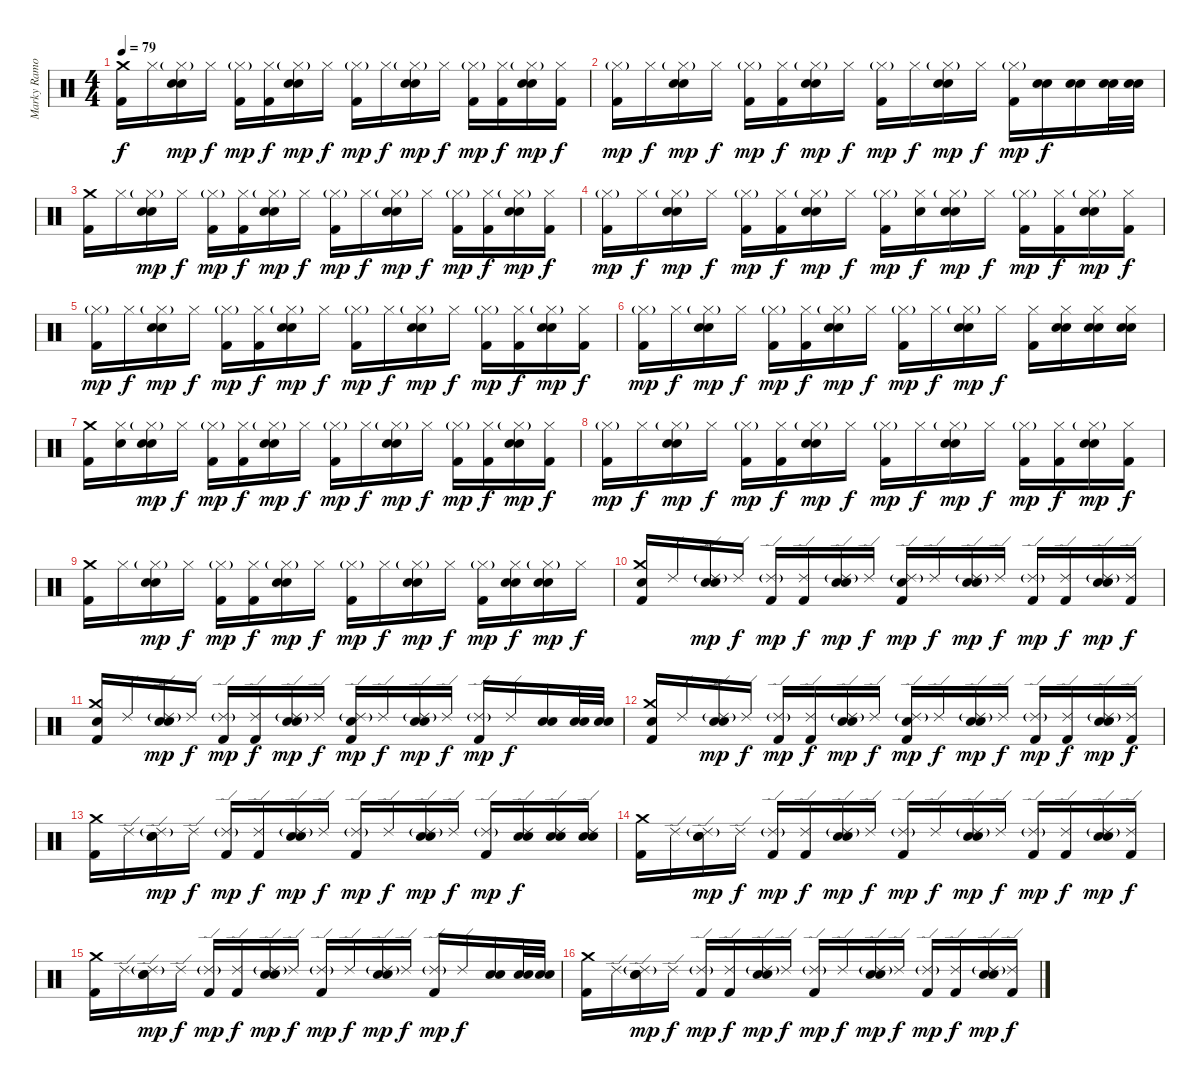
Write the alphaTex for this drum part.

\track ("Marky Ramone" "Marky Ramo") {instrument percussion}
\staff {score}
\articulation defaults
\ts (4 4)
\tempo 79
\clef neutral
\ks c
("Kick (hit) 2" "Crash medium (hit)").16{dy f} "Hi-Hat (closed)".16 ("Hi-Hat (closed)"{g} "Snare (hit) 2" "Electric Snare (hit)").16{dy mp} "Hi-Hat (closed)".16{dy f} ("Hi-Hat (closed)"{g} "Kick (hit) 2").16{dy mp} ("Hi-Hat (closed)" "Kick (hit) 2").16{dy f} ("Hi-Hat (closed)"{g} "Electric Snare (hit)" "Snare (hit) 2").16{dy mp} "Hi-Hat (closed)".16{dy f} ("Hi-Hat (closed)"{g} "Kick (hit) 2").16{dy mp} "Hi-Hat (closed)".16{dy f} ("Hi-Hat (closed)"{g} "Electric Snare (hit)" "Snare (hit) 2").16{dy mp} "Hi-Hat (closed)".16{dy f} ("Hi-Hat (closed)"{g} "Kick (hit) 2").16{dy mp} ("Hi-Hat (closed)" "Kick (hit) 2").16{dy f} ("Hi-Hat (closed)"{g} "Electric Snare (hit)" "Snare (hit) 2").16{dy mp} ("Hi-Hat (closed)" "Kick (hit) 2").16{dy f} |
("Hi-Hat (closed)"{g} "Kick (hit) 2").16{dy mp} "Hi-Hat (closed)".16{dy f} ("Hi-Hat (closed)"{g} "Electric Snare (hit)" "Snare (hit) 2").16{dy mp} "Hi-Hat (closed)".16{dy f} ("Hi-Hat (closed)"{g} "Kick (hit) 2").16{dy mp} ("Hi-Hat (closed)" "Kick (hit) 2").16{dy f} ("Hi-Hat (closed)"{g} "Electric Snare (hit)" "Snare (hit) 2").16{dy mp} "Hi-Hat (closed)".16{dy f} ("Hi-Hat (closed)"{g} "Kick (hit) 2").16{dy mp} "Hi-Hat (closed)".16{dy f} ("Hi-Hat (closed)"{g} "Electric Snare (hit)" "Snare (hit) 2").16{dy mp} "Hi-Hat (closed)".16{dy f} ("Hi-Hat (closed)"{g} "Kick (hit) 2").16{dy mp} ("Electric Snare (hit)" "Snare (hit) 2").16{dy f} ("Electric Snare (hit)" "Snare (hit) 2").16 ("Electric Snare (hit)" "Snare (hit) 2").32 ("Electric Snare (hit)" "Snare (hit) 2").32 |
("Crash medium (hit)" "Kick (hit) 2").16 "Hi-Hat (closed)".16 ("Hi-Hat (closed)"{g} "Electric Snare (hit)" "Snare (hit) 2").16{dy mp} "Hi-Hat (closed)".16{dy f} ("Hi-Hat (closed)"{g} "Kick (hit) 2").16{dy mp} ("Hi-Hat (closed)" "Kick (hit) 2").16{dy f} ("Hi-Hat (closed)"{g} "Electric Snare (hit)" "Snare (hit) 2").16{dy mp} "Hi-Hat (closed)".16{dy f} ("Hi-Hat (closed)"{g} "Kick (hit) 2").16{dy mp} "Hi-Hat (closed)".16{dy f} ("Hi-Hat (closed)"{g} "Electric Snare (hit)" "Snare (hit) 2").16{dy mp} "Hi-Hat (closed)".16{dy f} ("Hi-Hat (closed)"{g} "Kick (hit) 2").16{dy mp} ("Hi-Hat (closed)" "Kick (hit) 2").16{dy f} ("Hi-Hat (closed)"{g} "Electric Snare (hit)" "Snare (hit) 2").16{dy mp} ("Hi-Hat (closed)" "Kick (hit) 2").16{dy f} |
("Hi-Hat (closed)"{g} "Kick (hit) 2").16{dy mp} "Hi-Hat (closed)".16{dy f} ("Hi-Hat (closed)"{g} "Electric Snare (hit)" "Snare (hit) 2").16{dy mp} "Hi-Hat (closed)".16{dy f} ("Hi-Hat (closed)"{g} "Kick (hit) 2").16{dy mp} ("Hi-Hat (closed)" "Kick (hit) 2").16{dy f} ("Hi-Hat (closed)"{g} "Electric Snare (hit)" "Snare (hit) 2").16{dy mp} "Hi-Hat (closed)".16{dy f} ("Hi-Hat (closed)"{g} "Kick (hit) 2").16{dy mp} ("Hi-Hat (closed)" "Snare (hit)").16{dy f} ("Hi-Hat (closed)"{g} "Electric Snare (hit)" "Snare (hit) 2").16{dy mp} "Hi-Hat (closed)".16{dy f} ("Hi-Hat (closed)"{g} "Kick (hit) 2").16{dy mp} ("Hi-Hat (closed)" "Kick (hit) 2").16{dy f} ("Hi-Hat (closed)"{g} "Electric Snare (hit)" "Snare (hit) 2").16{dy mp} ("Hi-Hat (closed)" "Kick (hit) 2").16{dy f} |
("Hi-Hat (closed)"{g} "Kick (hit) 2").16{dy mp} "Hi-Hat (closed)".16{dy f} ("Hi-Hat (closed)"{g} "Electric Snare (hit)" "Snare (hit) 2").16{dy mp} "Hi-Hat (closed)".16{dy f} ("Hi-Hat (closed)"{g} "Kick (hit) 2").16{dy mp} ("Hi-Hat (closed)" "Kick (hit) 2").16{dy f} ("Hi-Hat (closed)"{g} "Electric Snare (hit)" "Snare (hit) 2").16{dy mp} "Hi-Hat (closed)".16{dy f} ("Hi-Hat (closed)"{g} "Kick (hit) 2").16{dy mp} "Hi-Hat (closed)".16{dy f} ("Hi-Hat (closed)"{g} "Electric Snare (hit)" "Snare (hit) 2").16{dy mp} "Hi-Hat (closed)".16{dy f} ("Hi-Hat (closed)"{g} "Kick (hit) 2").16{dy mp} ("Hi-Hat (closed)" "Kick (hit) 2").16{dy f} ("Hi-Hat (closed)"{g} "Electric Snare (hit)" "Snare (hit) 2").16{dy mp} ("Hi-Hat (closed)" "Kick (hit) 2").16{dy f} |
("Hi-Hat (closed)"{g} "Kick (hit) 2").16{dy mp} "Hi-Hat (closed)".16{dy f} ("Hi-Hat (closed)"{g} "Electric Snare (hit)" "Snare (hit) 2").16{dy mp} "Hi-Hat (closed)".16{dy f} ("Hi-Hat (closed)"{g} "Kick (hit) 2").16{dy mp} ("Hi-Hat (closed)" "Kick (hit) 2").16{dy f} ("Hi-Hat (closed)"{g} "Electric Snare (hit)" "Snare (hit) 2").16{dy mp} "Hi-Hat (closed)".16{dy f} ("Hi-Hat (closed)"{g} "Kick (hit) 2").16{dy mp} "Hi-Hat (closed)".16{dy f} ("Hi-Hat (closed)"{g} "Electric Snare (hit)" "Snare (hit) 2").16{dy mp} "Hi-Hat (closed)".16{dy f} ("Hi-Hat (closed)" "Kick (hit) 2").16 ("Hi-Hat (closed)" "Electric Snare (hit)" "Snare (hit) 2").16 ("Hi-Hat (closed)" "Electric Snare (hit)" "Snare (hit) 2").16 ("Hi-Hat (closed)" "Electric Snare (hit)" "Snare (hit) 2").16 |
("Crash medium (hit)" "Kick (hit) 2").16 ("Hi-Hat (closed)" "Snare (hit)").16 ("Hi-Hat (closed)"{g} "Electric Snare (hit)" "Snare (hit) 2").16{dy mp} "Hi-Hat (closed)".16{dy f} ("Hi-Hat (closed)"{g} "Kick (hit) 2").16{dy mp} ("Hi-Hat (closed)" "Kick (hit) 2").16{dy f} ("Hi-Hat (closed)"{g} "Electric Snare (hit)" "Snare (hit) 2").16{dy mp} "Hi-Hat (closed)".16{dy f} ("Hi-Hat (closed)"{g} "Kick (hit) 2").16{dy mp} "Hi-Hat (closed)".16{dy f} ("Hi-Hat (closed)"{g} "Electric Snare (hit)" "Snare (hit) 2").16{dy mp} "Hi-Hat (closed)".16{dy f} ("Hi-Hat (closed)"{g} "Kick (hit) 2").16{dy mp} ("Hi-Hat (closed)" "Kick (hit) 2").16{dy f} ("Hi-Hat (closed)"{g} "Electric Snare (hit)" "Snare (hit) 2").16{dy mp} ("Hi-Hat (closed)" "Kick (hit) 2").16{dy f} |
("Hi-Hat (closed)"{g} "Kick (hit) 2").16{dy mp} "Hi-Hat (closed)".16{dy f} ("Hi-Hat (closed)"{g} "Electric Snare (hit)" "Snare (hit) 2").16{dy mp} "Hi-Hat (closed)".16{dy f} ("Hi-Hat (closed)"{g} "Kick (hit) 2").16{dy mp} ("Hi-Hat (closed)" "Kick (hit) 2").16{dy f} ("Hi-Hat (closed)"{g} "Electric Snare (hit)" "Snare (hit) 2").16{dy mp} "Hi-Hat (closed)".16{dy f} ("Hi-Hat (closed)"{g} "Kick (hit) 2").16{dy mp} "Hi-Hat (closed)".16{dy f} ("Hi-Hat (closed)"{g} "Electric Snare (hit)" "Snare (hit) 2").16{dy mp} "Hi-Hat (closed)".16{dy f} ("Hi-Hat (closed)"{g} "Kick (hit) 2").16{dy mp} ("Hi-Hat (closed)" "Kick (hit) 2").16{dy f} ("Hi-Hat (closed)"{g} "Electric Snare (hit)" "Snare (hit) 2").16{dy mp} ("Hi-Hat (closed)" "Kick (hit) 2").16{dy f} |
("Crash medium (hit)" "Kick (hit) 2").16 "Hi-Hat (closed)".16 ("Hi-Hat (closed)"{g} "Electric Snare (hit)" "Snare (hit) 2").16{dy mp} "Hi-Hat (closed)".16{dy f} ("Hi-Hat (closed)"{g} "Kick (hit) 2").16{dy mp} ("Hi-Hat (closed)" "Kick (hit) 2").16{dy f} ("Hi-Hat (closed)"{g} "Electric Snare (hit)" "Snare (hit) 2").16{dy mp} "Hi-Hat (closed)".16{dy f} ("Hi-Hat (closed)"{g} "Kick (hit) 2").16{dy mp} "Hi-Hat (closed)".16{dy f} ("Hi-Hat (closed)"{g} "Electric Snare (hit)" "Snare (hit) 2").16{dy mp} "Hi-Hat (closed)".16{dy f} ("Hi-Hat (closed)"{g} "Kick (hit) 2").16{dy mp} ("Hi-Hat (closed)" "Electric Snare (hit)" "Snare (hit) 2").16{dy f} ("Hi-Hat (closed)"{g} "Electric Snare (hit)" "Snare (hit) 2").16{dy mp} "Hi-Hat (closed)".16{dy f} |
("Crash medium (hit)" "Kick (hit) 2" "Metronome (bell)").16 "Ride (edge) 2".16 ("Ride (edge) 2"{g} "Electric Snare (hit)" "Snare (hit) 2").16{dy mp} "Ride (edge) 2".16{dy f} ("Ride (edge) 2"{g} "Kick (hit) 2").16{dy mp} ("Ride (edge) 2" "Kick (hit) 2").16{dy f} ("Ride (edge) 2"{g} "Electric Snare (hit)" "Snare (hit) 2").16{dy mp} "Ride (edge) 2".16{dy f} ("Ride (edge) 2"{g} "Kick (hit) 2" "Metronome (bell)").16{dy mp} "Ride (edge) 2".16{dy f} ("Ride (edge) 2"{g} "Electric Snare (hit)" "Snare (hit) 2").16{dy mp} "Ride (edge) 2".16{dy f} ("Ride (edge) 2"{g} "Kick (hit) 2").16{dy mp} ("Ride (edge) 2" "Kick (hit) 2").16{dy f} ("Ride (edge) 2"{g} "Electric Snare (hit)" "Snare (hit) 2").16{dy mp} ("Ride (edge) 2" "Kick (hit) 2").16{dy f} |
("Crash medium (hit)" "Kick (hit) 2" "Metronome (bell)").16 "Ride (edge) 2".16 ("Ride (edge) 2"{g} "Electric Snare (hit)" "Snare (hit) 2").16{dy mp} "Ride (edge) 2".16{dy f} ("Ride (edge) 2"{g} "Kick (hit) 2").16{dy mp} ("Ride (edge) 2" "Kick (hit) 2").16{dy f} ("Ride (edge) 2"{g} "Electric Snare (hit)" "Snare (hit) 2").16{dy mp} "Ride (edge) 2".16{dy f} ("Ride (edge) 2"{g} "Kick (hit) 2" "Metronome (bell)").16{dy mp} "Ride (edge) 2".16{dy f} ("Ride (edge) 2"{g} "Electric Snare (hit)" "Snare (hit) 2").16{dy mp} "Ride (edge) 2".16{dy f} ("Ride (edge) 2"{g} "Kick (hit) 2").16{dy mp} "Ride (edge) 2".16{dy f} ("Electric Snare (hit)" "Snare (hit) 2").16 ("Electric Snare (hit)" "Snare (hit) 2").32 ("Electric Snare (hit)" "Snare (hit) 2").32 |
("Crash medium (hit)" "Kick (hit) 2" "Metronome (bell)").16 "Ride (edge) 2".16 ("Ride (edge) 2"{g} "Electric Snare (hit)" "Snare (hit) 2").16{dy mp} "Ride (edge) 2".16{dy f} ("Ride (edge) 2"{g} "Kick (hit) 2").16{dy mp} ("Ride (edge) 2" "Kick (hit) 2").16{dy f} ("Ride (edge) 2"{g} "Electric Snare (hit)" "Snare (hit) 2").16{dy mp} "Ride (edge) 2".16{dy f} ("Ride (edge) 2"{g} "Kick (hit) 2" "Metronome (bell)").16{dy mp} "Ride (edge) 2".16{dy f} ("Ride (edge) 2"{g} "Electric Snare (hit)" "Snare (hit) 2").16{dy mp} "Ride (edge) 2".16{dy f} ("Ride (edge) 2"{g} "Kick (hit) 2").16{dy mp} ("Ride (edge) 2" "Kick (hit) 2").16{dy f} ("Ride (edge) 2"{g} "Electric Snare (hit)" "Snare (hit) 2").16{dy mp} ("Ride (edge) 2" "Kick (hit) 2").16{dy f} |
("Crash medium (hit)" "Kick (hit) 2").16 "Ride (edge) 2".16 ("Ride (edge) 2"{g} "Electric Snare (hit)" "Snare (hit) 2").16{dy mp} "Ride (edge) 2".16{dy f} ("Ride (edge) 2"{g} "Kick (hit) 2").16{dy mp} ("Ride (edge) 2" "Kick (hit) 2").16{dy f} ("Ride (edge) 2"{g} "Electric Snare (hit)" "Snare (hit) 2").16{dy mp} "Ride (edge) 2".16{dy f} ("Ride (edge) 2"{g} "Kick (hit) 2").16{dy mp} "Ride (edge) 2".16{dy f} ("Ride (edge) 2"{g} "Electric Snare (hit)" "Snare (hit) 2").16{dy mp} "Ride (edge) 2".16{dy f} ("Ride (edge) 2"{g} "Kick (hit) 2").16{dy mp} ("Ride (edge) 2" "Electric Snare (hit)" "Snare (hit) 2").16{dy f} ("Ride (edge) 2" "Electric Snare (hit)" "Snare (hit) 2").16 ("Ride (edge) 2" "Electric Snare (hit)" "Snare (hit) 2").16 |
("Crash medium (hit)" "Kick (hit) 2").16 "Ride (edge) 2".16 ("Ride (edge) 2"{g} "Electric Snare (hit)" "Snare (hit) 2").16{dy mp} "Ride (edge) 2".16{dy f} ("Ride (edge) 2"{g} "Kick (hit) 2").16{dy mp} ("Ride (edge) 2" "Kick (hit) 2").16{dy f} ("Ride (edge) 2"{g} "Electric Snare (hit)" "Snare (hit) 2").16{dy mp} "Ride (edge) 2".16{dy f} ("Ride (edge) 2"{g} "Kick (hit) 2").16{dy mp} "Ride (edge) 2".16{dy f} ("Ride (edge) 2"{g} "Electric Snare (hit)" "Snare (hit) 2").16{dy mp} "Ride (edge) 2".16{dy f} ("Ride (edge) 2"{g} "Kick (hit) 2").16{dy mp} ("Ride (edge) 2" "Kick (hit) 2").16{dy f} ("Ride (edge) 2"{g} "Electric Snare (hit)" "Snare (hit) 2").16{dy mp} ("Ride (edge) 2" "Kick (hit) 2").16{dy f} |
("Crash medium (hit)" "Kick (hit) 2").16 "Ride (edge) 2".16 ("Ride (edge) 2"{g} "Electric Snare (hit)" "Snare (hit) 2").16{dy mp} "Ride (edge) 2".16{dy f} ("Ride (edge) 2"{g} "Kick (hit) 2").16{dy mp} ("Ride (edge) 2" "Kick (hit) 2").16{dy f} ("Ride (edge) 2"{g} "Electric Snare (hit)" "Snare (hit) 2").16{dy mp} "Ride (edge) 2".16{dy f} ("Ride (edge) 2"{g} "Kick (hit) 2").16{dy mp} "Ride (edge) 2".16{dy f} ("Ride (edge) 2"{g} "Electric Snare (hit)" "Snare (hit) 2").16{dy mp} "Ride (edge) 2".16{dy f} ("Ride (edge) 2"{g} "Kick (hit) 2").16{dy mp} "Ride (edge) 2".16{dy f} ("Electric Snare (hit)" "Snare (hit) 2").16 ("Electric Snare (hit)" "Snare (hit) 2").32 ("Electric Snare (hit)" "Snare (hit) 2").32 |
("Crash medium (hit)" "Kick (hit) 2").16 "Ride (edge) 2".16 ("Ride (edge) 2"{g} "Electric Snare (hit)" "Snare (hit) 2").16{dy mp} "Ride (edge) 2".16{dy f} ("Ride (edge) 2"{g} "Kick (hit) 2").16{dy mp} ("Ride (edge) 2" "Kick (hit) 2").16{dy f} ("Ride (edge) 2"{g} "Electric Snare (hit)" "Snare (hit) 2").16{dy mp} "Ride (edge) 2".16{dy f} ("Ride (edge) 2"{g} "Kick (hit) 2").16{dy mp} "Ride (edge) 2".16{dy f} ("Ride (edge) 2"{g} "Electric Snare (hit)" "Snare (hit) 2").16{dy mp} "Ride (edge) 2".16{dy f} ("Ride (edge) 2"{g} "Kick (hit) 2").16{dy mp} ("Ride (edge) 2" "Kick (hit) 2").16{dy f} ("Ride (edge) 2"{g} "Electric Snare (hit)" "Snare (hit) 2").16{dy mp} ("Ride (edge) 2" "Kick (hit) 2").16{dy f}
